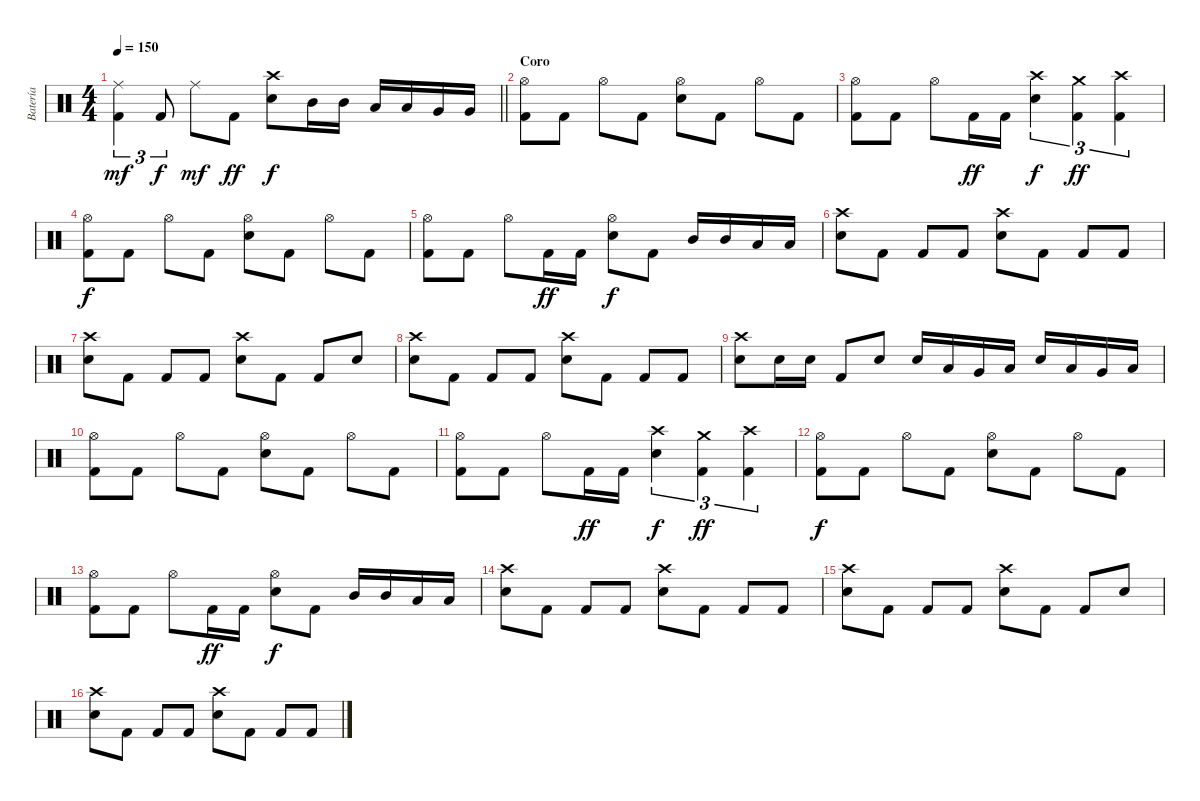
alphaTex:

\track ("Batería" "Batería") {instrument percussion}
\staff {score}
\articulation defaults
\ts (4 4)
\tempo 150
\clef neutral
\barLineRight lightlight
\ks c
("Ride (middle)" "Kick (hit) 2").4{tu (3 2) dy mf} "Kick (hit) 2".8{tu (3 2) dy f} "Ride (middle)".8{dy mf} "Kick (hit) 2".8{dy ff} ("Crash high (hit)" "Electric Snare (hit)").8{dy f} "Mid Tom (hit)".16 "Mid Tom (hit)".16 "Low Tom (hit)".16 "Low Tom (hit)".16 "Very Low Tom (hit)".16 "Very Low Tom (hit)".16 |
\section ("" "Coro")
("Hi-Hat (open)" "Kick (hit) 2").8 "Kick (hit) 2".8 "Hi-Hat (open)".8 "Kick (hit) 2".8 ("Hi-Hat (open)" "Electric Snare (hit)").8 "Kick (hit) 2".8 "Hi-Hat (open)".8 "Kick (hit) 2".8 |
("Hi-Hat (open)" "Kick (hit) 2").8 "Kick (hit) 2".8 "Hi-Hat (open)".8 "Kick (hit) 2".16{dy ff} "Kick (hit) 2".16 ("Crash high (hit)" "Electric Snare (hit)").4{tu (3 2) dy f} ("Crash medium (hit)" "Kick (hit) 2").4{tu (3 2) dy ff} ("Crash high (hit)" "Kick (hit) 2").4{tu (3 2)} |
("Hi-Hat (open)" "Kick (hit) 2").8{dy f} "Kick (hit) 2".8 "Hi-Hat (open)".8 "Kick (hit) 2".8 ("Hi-Hat (open)" "Electric Snare (hit)").8 "Kick (hit) 2".8 "Hi-Hat (open)".8 "Kick (hit) 2".8 |
("Hi-Hat (open)" "Kick (hit) 2").8 "Kick (hit) 2".8 "Hi-Hat (open)".8 "Kick (hit) 2".16{dy ff} "Kick (hit) 2".16 ("Hi-Hat (open)" "Electric Snare (hit)").8{dy f} "Kick (hit) 2".8 "Mid Tom (hit)".16 "Mid Tom (hit)".16 "Low Tom (hit)".16 "Low Tom (hit)".16 |
("Crash high (hit)" "Electric Snare (hit)").8 "Kick (hit) 2".8 "Kick (hit) 2".8 "Kick (hit) 2".8 ("Crash high (hit)" "Electric Snare (hit)").8 "Kick (hit) 2".8 "Kick (hit) 2".8 "Kick (hit) 2".8 |
("Crash high (hit)" "Electric Snare (hit)").8 "Kick (hit) 2".8 "Kick (hit) 2".8 "Kick (hit) 2".8 ("Crash high (hit)" "Electric Snare (hit)").8 "Kick (hit) 2".8 "Kick (hit) 2".8 "Electric Snare (hit)".8 |
("Crash high (hit)" "Electric Snare (hit)").8 "Kick (hit) 2".8 "Kick (hit) 2".8 "Kick (hit) 2".8 ("Crash high (hit)" "Electric Snare (hit)").8 "Kick (hit) 2".8 "Kick (hit) 2".8 "Kick (hit) 2".8 |
("Crash high (hit)" "Electric Snare (hit)").8 "Electric Snare (hit)".16 "Electric Snare (hit)".16 "Kick (hit) 2".8 "Electric Snare (hit)".8 "Electric Snare (hit)".16 "Low Tom (hit)".16 "Very Low Tom (hit)".16 "Low Floor Tom (hit)".16 "Electric Snare (hit)".16 "Low Tom (hit)".16 "Very Low Tom (hit)".16 "Low Floor Tom (hit)".16 |
("Hi-Hat (open)" "Kick (hit) 2").8 "Kick (hit) 2".8 "Hi-Hat (open)".8 "Kick (hit) 2".8 ("Hi-Hat (open)" "Electric Snare (hit)").8 "Kick (hit) 2".8 "Hi-Hat (open)".8 "Kick (hit) 2".8 |
("Hi-Hat (open)" "Kick (hit) 2").8 "Kick (hit) 2".8 "Hi-Hat (open)".8 "Kick (hit) 2".16{dy ff} "Kick (hit) 2".16 ("Crash high (hit)" "Electric Snare (hit)").4{tu (3 2) dy f} ("Crash medium (hit)" "Kick (hit) 2").4{tu (3 2) dy ff} ("Crash high (hit)" "Kick (hit) 2").4{tu (3 2)} |
("Hi-Hat (open)" "Kick (hit) 2").8{dy f} "Kick (hit) 2".8 "Hi-Hat (open)".8 "Kick (hit) 2".8 ("Hi-Hat (open)" "Electric Snare (hit)").8 "Kick (hit) 2".8 "Hi-Hat (open)".8 "Kick (hit) 2".8 |
("Hi-Hat (open)" "Kick (hit) 2").8 "Kick (hit) 2".8 "Hi-Hat (open)".8 "Kick (hit) 2".16{dy ff} "Kick (hit) 2".16 ("Hi-Hat (open)" "Electric Snare (hit)").8{dy f} "Kick (hit) 2".8 "Mid Tom (hit)".16 "Mid Tom (hit)".16 "Low Tom (hit)".16 "Low Tom (hit)".16 |
("Crash high (hit)" "Electric Snare (hit)").8 "Kick (hit) 2".8 "Kick (hit) 2".8 "Kick (hit) 2".8 ("Crash high (hit)" "Electric Snare (hit)").8 "Kick (hit) 2".8 "Kick (hit) 2".8 "Kick (hit) 2".8 |
("Crash high (hit)" "Electric Snare (hit)").8 "Kick (hit) 2".8 "Kick (hit) 2".8 "Kick (hit) 2".8 ("Crash high (hit)" "Electric Snare (hit)").8 "Kick (hit) 2".8 "Kick (hit) 2".8 "Electric Snare (hit)".8 |
("Crash high (hit)" "Electric Snare (hit)").8 "Kick (hit) 2".8 "Kick (hit) 2".8 "Kick (hit) 2".8 ("Crash high (hit)" "Electric Snare (hit)").8 "Kick (hit) 2".8 "Kick (hit) 2".8 "Kick (hit) 2".8
